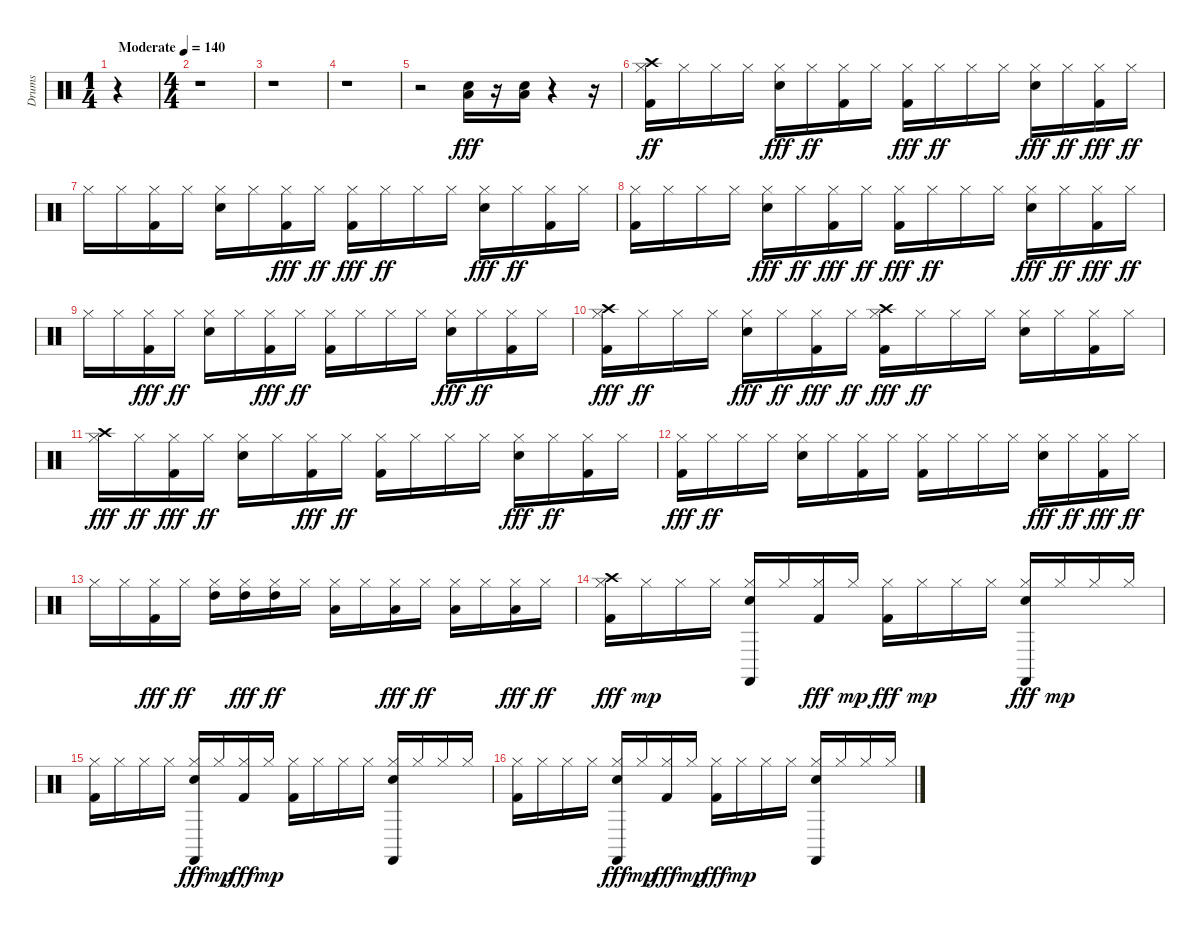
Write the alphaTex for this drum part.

\track ("Drums" "Drums") {instrument percussion}
\staff {score}
\articulation defaults
\ts (1 4)
\tempo (140 "Moderate")
\clef neutral
\ks c
r.4{dy fff} |
\ts (4 4)
r.1 |
r.1 |
r.1 |
r.2 ("Snare (hit) 2" "Low Floor Tom (hit)").16 r.16 ("Low Floor Tom (hit)" "Snare (hit) 2").16 r.4 r.16 |
("Crash high (hit)" "Kick (hit) 2" "Hi-Hat (closed)").16{dy ff} "Hi-Hat (closed)".16 "Hi-Hat (closed)".16 "Hi-Hat (closed)".16 ("Hi-Hat (closed)" "Snare (hit) 2").16{dy fff} "Hi-Hat (closed)".16{dy ff} ("Kick (hit) 2" "Hi-Hat (closed)").16 "Hi-Hat (closed)".16 ("Hi-Hat (closed)" "Kick (hit) 2").16{dy fff} "Hi-Hat (closed)".16{dy ff} "Hi-Hat (closed)".16 "Hi-Hat (closed)".16 ("Hi-Hat (closed)" "Snare (hit) 2").16{dy fff} "Hi-Hat (closed)".16{dy ff} ("Hi-Hat (closed)" "Kick (hit) 2").16{dy fff} "Hi-Hat (closed)".16{dy ff} |
"Hi-Hat (closed)".16 "Hi-Hat (closed)".16 ("Kick (hit) 2" "Hi-Hat (closed)").16 "Hi-Hat (closed)".16 ("Snare (hit) 2" "Hi-Hat (closed)").16 "Hi-Hat (closed)".16 ("Hi-Hat (closed)" "Kick (hit) 2").16{dy fff} "Hi-Hat (closed)".16{dy ff} ("Hi-Hat (closed)" "Kick (hit) 2").16{dy fff} "Hi-Hat (closed)".16{dy ff} "Hi-Hat (closed)".16 "Hi-Hat (closed)".16 ("Hi-Hat (closed)" "Snare (hit) 2").16{dy fff} "Hi-Hat (closed)".16{dy ff} ("Kick (hit) 2" "Hi-Hat (closed)").16 "Hi-Hat (closed)".16 |
("Kick (hit) 2" "Hi-Hat (closed)").16 "Hi-Hat (closed)".16 "Hi-Hat (closed)".16 "Hi-Hat (closed)".16 ("Hi-Hat (closed)" "Snare (hit) 2").16{dy fff} "Hi-Hat (closed)".16{dy ff} ("Hi-Hat (closed)" "Kick (hit) 2").16{dy fff} "Hi-Hat (closed)".16{dy ff} ("Hi-Hat (closed)" "Kick (hit) 2").16{dy fff} "Hi-Hat (closed)".16{dy ff} "Hi-Hat (closed)".16 "Hi-Hat (closed)".16 ("Hi-Hat (closed)" "Snare (hit) 2").16{dy fff} "Hi-Hat (closed)".16{dy ff} ("Hi-Hat (closed)" "Kick (hit) 2").16{dy fff} "Hi-Hat (closed)".16{dy ff} |
"Hi-Hat (closed)".16 "Hi-Hat (closed)".16 ("Hi-Hat (closed)" "Kick (hit) 2").16{dy fff} "Hi-Hat (closed)".16{dy ff} ("Snare (hit) 2" "Hi-Hat (closed)").16 "Hi-Hat (closed)".16 ("Hi-Hat (closed)" "Kick (hit) 2").16{dy fff} "Hi-Hat (closed)".16{dy ff} ("Kick (hit) 2" "Hi-Hat (closed)").16 "Hi-Hat (closed)".16 "Hi-Hat (closed)".16 "Hi-Hat (closed)".16 ("Hi-Hat (closed)" "Snare (hit) 2").16{dy fff} "Hi-Hat (closed)".16{dy ff} ("Kick (hit) 2" "Hi-Hat (closed)").16 "Hi-Hat (closed)".16 |
("Hi-Hat (closed)" "Crash high (hit)" "Kick (hit) 2").16{dy fff} "Hi-Hat (closed)".16{dy ff} "Hi-Hat (closed)".16 "Hi-Hat (closed)".16 ("Hi-Hat (closed)" "Snare (hit) 2").16{dy fff} "Hi-Hat (closed)".16{dy ff} ("Hi-Hat (closed)" "Kick (hit) 2").16{dy fff} "Hi-Hat (closed)".16{dy ff} ("Kick (hit) 2" "Hi-Hat (closed)" "Crash high (hit)").16{dy fff} "Hi-Hat (closed)".16{dy ff} "Hi-Hat (closed)".16 "Hi-Hat (closed)".16 ("Snare (hit) 2" "Hi-Hat (closed)").16 "Hi-Hat (closed)".16 ("Kick (hit) 2" "Hi-Hat (closed)").16 "Hi-Hat (closed)".16 |
("Hi-Hat (closed)" "Crash high (hit)").16{dy fff} "Hi-Hat (closed)".16{dy ff} ("Hi-Hat (closed)" "Kick (hit) 2").16{dy fff} "Hi-Hat (closed)".16{dy ff} ("Snare (hit) 2" "Hi-Hat (closed)").16 "Hi-Hat (closed)".16 ("Hi-Hat (closed)" "Kick (hit) 2").16{dy fff} "Hi-Hat (closed)".16{dy ff} ("Kick (hit) 2" "Hi-Hat (closed)").16 "Hi-Hat (closed)".16 "Hi-Hat (closed)".16 "Hi-Hat (closed)".16 ("Hi-Hat (closed)" "Snare (hit) 2").16{dy fff} "Hi-Hat (closed)".16{dy ff} ("Kick (hit) 2" "Hi-Hat (closed)").16 "Hi-Hat (closed)".16 |
("Hi-Hat (closed)" "Kick (hit) 2").16{dy fff} "Hi-Hat (closed)".16{dy ff} "Hi-Hat (closed)".16 "Hi-Hat (closed)".16 ("Snare (hit) 2" "Hi-Hat (closed)").16 "Hi-Hat (closed)".16 ("Kick (hit) 2" "Hi-Hat (closed)").16 "Hi-Hat (closed)".16 ("Kick (hit) 2" "Hi-Hat (closed)").16 "Hi-Hat (closed)".16 "Hi-Hat (closed)".16 "Hi-Hat (closed)".16 ("Hi-Hat (closed)" "Snare (hit) 2").16{dy fff} "Hi-Hat (closed)".16{dy ff} ("Hi-Hat (closed)" "Kick (hit) 2").16{dy fff} "Hi-Hat (closed)".16{dy ff} |
"Hi-Hat (closed)".16 "Hi-Hat (closed)".16 ("Hi-Hat (closed)" "Kick (hit) 2").16{dy fff} "Hi-Hat (closed)".16{dy ff} ("High Tom (hit)" "Hi-Hat (closed)").16 ("Hi-Hat (closed)" "High Tom (hit)").16{dy fff} ("High Tom (hit)" "Hi-Hat (closed)").16{dy ff} "Hi-Hat (closed)".16 ("Low Tom (hit)" "Hi-Hat (closed)").16 "Hi-Hat (closed)".16 ("Hi-Hat (closed)" "Low Tom (hit)").16{dy fff} "Hi-Hat (closed)".16{dy ff} ("Low Floor Tom (hit)" "Hi-Hat (closed)").16 "Hi-Hat (closed)".16 ("Hi-Hat (closed)" "Low Floor Tom (hit)").16{dy fff} "Hi-Hat (closed)".16{dy ff} |
("Crash high (hit)" "Hi-Hat (closed)" "Kick (hit) 2").16{dy fff} "Hi-Hat (closed)".16{dy mp} "Hi-Hat (closed)".16 "Hi-Hat (closed)".16 ("Castanets (hit)" "Snare (hit) 2" "Hi-Hat (closed)").16 "Hi-Hat (closed)".16 ("Hi-Hat (closed)" "Kick (hit) 2").16{dy fff} "Hi-Hat (closed)".16{dy mp} ("Hi-Hat (closed)" "Kick (hit) 2").16{dy fff} "Hi-Hat (closed)".16{dy mp} "Hi-Hat (closed)".16 "Hi-Hat (closed)".16 ("Castanets (hit)" "Hi-Hat (closed)" "Snare (hit) 2").16{dy fff} "Hi-Hat (closed)".16{dy mp} "Hi-Hat (closed)".16 "Hi-Hat (closed)".16 |
("Kick (hit) 2" "Hi-Hat (closed)").16 "Hi-Hat (closed)".16 "Hi-Hat (closed)".16 "Hi-Hat (closed)".16 ("Hi-Hat (closed)" "Castanets (hit)" "Snare (hit) 2").16{dy fff} "Hi-Hat (closed)".16{dy mp} ("Hi-Hat (closed)" "Kick (hit) 2").16{dy fff} "Hi-Hat (closed)".16{dy mp} ("Kick (hit) 2" "Hi-Hat (closed)").16 "Hi-Hat (closed)".16 "Hi-Hat (closed)".16 "Hi-Hat (closed)".16 ("Castanets (hit)" "Snare (hit) 2" "Hi-Hat (closed)").16 "Hi-Hat (closed)".16 "Hi-Hat (closed)".16 "Hi-Hat (closed)".16 |
("Kick (hit) 2" "Hi-Hat (closed)").16 "Hi-Hat (closed)".16 "Hi-Hat (closed)".16 "Hi-Hat (closed)".16 ("Snare (hit) 2" "Hi-Hat (closed)" "Castanets (hit)").16{dy fff} "Hi-Hat (closed)".16{dy mp} ("Hi-Hat (closed)" "Kick (hit) 2").16{dy fff} "Hi-Hat (closed)".16{dy mp} ("Hi-Hat (closed)" "Kick (hit) 2").16{dy fff} "Hi-Hat (closed)".16{dy mp} "Hi-Hat (closed)".16 "Hi-Hat (closed)".16 ("Snare (hit) 2" "Castanets (hit)" "Hi-Hat (closed)").16 "Hi-Hat (closed)".16 "Hi-Hat (closed)".16 "Hi-Hat (closed)".16
